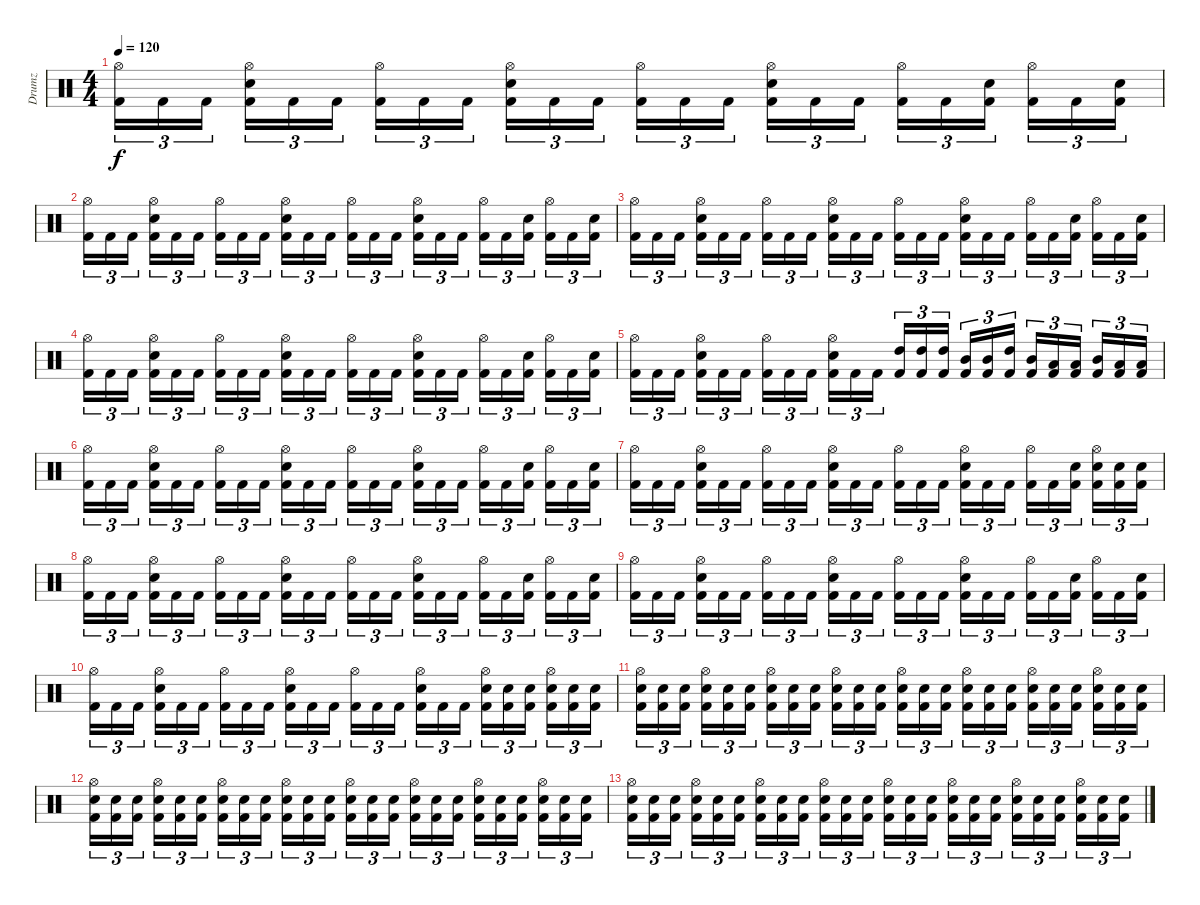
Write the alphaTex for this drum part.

\track ("Drumz" "Drumz") {instrument percussion}
\staff {score}
\articulation defaults
\ts (4 4)
\tempo 120
\clef neutral
\ks c
("Hi-Hat (open)" "Kick (hit) 2").16{tu (3 2) dy f} "Kick (hit) 2".16{tu (3 2)} "Kick (hit) 2".16{tu (3 2)} ("Hi-Hat (open)" "Snare (hit) 2" "Kick (hit) 2").16{tu (3 2)} "Kick (hit) 2".16{tu (3 2)} "Kick (hit) 2".16{tu (3 2)} ("Hi-Hat (open)" "Kick (hit) 2").16{tu (3 2)} "Kick (hit) 2".16{tu (3 2)} "Kick (hit) 2".16{tu (3 2)} ("Hi-Hat (open)" "Snare (hit) 2" "Kick (hit) 2").16{tu (3 2)} "Kick (hit) 2".16{tu (3 2)} "Kick (hit) 2".16{tu (3 2)} ("Hi-Hat (open)" "Kick (hit) 2").16{tu (3 2)} "Kick (hit) 2".16{tu (3 2)} "Kick (hit) 2".16{tu (3 2)} ("Hi-Hat (open)" "Snare (hit) 2" "Kick (hit) 2").16{tu (3 2)} "Kick (hit) 2".16{tu (3 2)} "Kick (hit) 2".16{tu (3 2)} ("Hi-Hat (open)" "Kick (hit) 2").16{tu (3 2)} "Kick (hit) 2".16{tu (3 2)} ("Snare (hit) 2" "Kick (hit) 2").16{tu (3 2)} ("Hi-Hat (open)" "Kick (hit) 2").16{tu (3 2)} "Kick (hit) 2".16{tu (3 2)} ("Snare (hit) 2" "Kick (hit) 2").16{tu (3 2)} |
("Hi-Hat (open)" "Kick (hit) 2").16{tu (3 2)} "Kick (hit) 2".16{tu (3 2)} "Kick (hit) 2".16{tu (3 2)} ("Hi-Hat (open)" "Snare (hit) 2" "Kick (hit) 2").16{tu (3 2)} "Kick (hit) 2".16{tu (3 2)} "Kick (hit) 2".16{tu (3 2)} ("Hi-Hat (open)" "Kick (hit) 2").16{tu (3 2)} "Kick (hit) 2".16{tu (3 2)} "Kick (hit) 2".16{tu (3 2)} ("Hi-Hat (open)" "Snare (hit) 2" "Kick (hit) 2").16{tu (3 2)} "Kick (hit) 2".16{tu (3 2)} "Kick (hit) 2".16{tu (3 2)} ("Hi-Hat (open)" "Kick (hit) 2").16{tu (3 2)} "Kick (hit) 2".16{tu (3 2)} "Kick (hit) 2".16{tu (3 2)} ("Hi-Hat (open)" "Snare (hit) 2" "Kick (hit) 2").16{tu (3 2)} "Kick (hit) 2".16{tu (3 2)} "Kick (hit) 2".16{tu (3 2)} ("Hi-Hat (open)" "Kick (hit) 2").16{tu (3 2)} "Kick (hit) 2".16{tu (3 2)} ("Snare (hit) 2" "Kick (hit) 2").16{tu (3 2)} ("Hi-Hat (open)" "Kick (hit) 2").16{tu (3 2)} "Kick (hit) 2".16{tu (3 2)} ("Snare (hit) 2" "Kick (hit) 2").16{tu (3 2)} |
("Hi-Hat (open)" "Kick (hit) 2").16{tu (3 2)} "Kick (hit) 2".16{tu (3 2)} "Kick (hit) 2".16{tu (3 2)} ("Hi-Hat (open)" "Snare (hit) 2" "Kick (hit) 2").16{tu (3 2)} "Kick (hit) 2".16{tu (3 2)} "Kick (hit) 2".16{tu (3 2)} ("Hi-Hat (open)" "Kick (hit) 2").16{tu (3 2)} "Kick (hit) 2".16{tu (3 2)} "Kick (hit) 2".16{tu (3 2)} ("Hi-Hat (open)" "Snare (hit) 2" "Kick (hit) 2").16{tu (3 2)} "Kick (hit) 2".16{tu (3 2)} "Kick (hit) 2".16{tu (3 2)} ("Hi-Hat (open)" "Kick (hit) 2").16{tu (3 2)} "Kick (hit) 2".16{tu (3 2)} "Kick (hit) 2".16{tu (3 2)} ("Hi-Hat (open)" "Snare (hit) 2" "Kick (hit) 2").16{tu (3 2)} "Kick (hit) 2".16{tu (3 2)} "Kick (hit) 2".16{tu (3 2)} ("Hi-Hat (open)" "Kick (hit) 2").16{tu (3 2)} "Kick (hit) 2".16{tu (3 2)} ("Snare (hit) 2" "Kick (hit) 2").16{tu (3 2)} ("Hi-Hat (open)" "Kick (hit) 2").16{tu (3 2)} "Kick (hit) 2".16{tu (3 2)} ("Snare (hit) 2" "Kick (hit) 2").16{tu (3 2)} |
("Hi-Hat (open)" "Kick (hit) 2").16{tu (3 2)} "Kick (hit) 2".16{tu (3 2)} "Kick (hit) 2".16{tu (3 2)} ("Hi-Hat (open)" "Snare (hit) 2" "Kick (hit) 2").16{tu (3 2)} "Kick (hit) 2".16{tu (3 2)} "Kick (hit) 2".16{tu (3 2)} ("Hi-Hat (open)" "Kick (hit) 2").16{tu (3 2)} "Kick (hit) 2".16{tu (3 2)} "Kick (hit) 2".16{tu (3 2)} ("Hi-Hat (open)" "Snare (hit) 2" "Kick (hit) 2").16{tu (3 2)} "Kick (hit) 2".16{tu (3 2)} "Kick (hit) 2".16{tu (3 2)} ("Hi-Hat (open)" "Kick (hit) 2").16{tu (3 2)} "Kick (hit) 2".16{tu (3 2)} "Kick (hit) 2".16{tu (3 2)} ("Hi-Hat (open)" "Snare (hit) 2" "Kick (hit) 2").16{tu (3 2)} "Kick (hit) 2".16{tu (3 2)} "Kick (hit) 2".16{tu (3 2)} ("Hi-Hat (open)" "Kick (hit) 2").16{tu (3 2)} "Kick (hit) 2".16{tu (3 2)} ("Snare (hit) 2" "Kick (hit) 2").16{tu (3 2)} ("Hi-Hat (open)" "Kick (hit) 2").16{tu (3 2)} "Kick (hit) 2".16{tu (3 2)} ("Snare (hit) 2" "Kick (hit) 2").16{tu (3 2)} |
("Hi-Hat (open)" "Kick (hit) 2").16{tu (3 2)} "Kick (hit) 2".16{tu (3 2)} "Kick (hit) 2".16{tu (3 2)} ("Hi-Hat (open)" "Snare (hit) 2" "Kick (hit) 2").16{tu (3 2)} "Kick (hit) 2".16{tu (3 2)} "Kick (hit) 2".16{tu (3 2)} ("Hi-Hat (open)" "Kick (hit) 2").16{tu (3 2)} "Kick (hit) 2".16{tu (3 2)} "Kick (hit) 2".16{tu (3 2)} ("Hi-Hat (open)" "Snare (hit) 2" "Kick (hit) 2").16{tu (3 2)} "Kick (hit) 2".16{tu (3 2)} "Kick (hit) 2".16{tu (3 2)} ("High Tom (hit)" "Kick (hit) 2").16{tu (3 2)} ("High Tom (hit)" "Kick (hit) 2").16{tu (3 2)} ("High Tom (hit)" "Kick (hit) 2").16{tu (3 2)} ("Mid Tom (hit)" "Kick (hit) 2").16{tu (3 2)} ("Mid Tom (hit)" "Kick (hit) 2").16{tu (3 2)} ("High Tom (hit)" "Kick (hit) 2").16{tu (3 2)} ("Mid Tom (hit)" "Kick (hit) 2").16{tu (3 2)} ("Low Tom (hit)" "Kick (hit) 2").16{tu (3 2)} ("Low Tom (hit)" "Kick (hit) 2").16{tu (3 2)} ("Mid Tom (hit)" "Kick (hit) 2").16{tu (3 2)} ("Low Tom (hit)" "Kick (hit) 2").16{tu (3 2)} ("Low Tom (hit)" "Kick (hit) 2").16{tu (3 2)} |
("Hi-Hat (open)" "Kick (hit) 2").16{tu (3 2)} "Kick (hit) 2".16{tu (3 2)} "Kick (hit) 2".16{tu (3 2)} ("Hi-Hat (open)" "Snare (hit) 2" "Kick (hit) 2").16{tu (3 2)} "Kick (hit) 2".16{tu (3 2)} "Kick (hit) 2".16{tu (3 2)} ("Hi-Hat (open)" "Kick (hit) 2").16{tu (3 2)} "Kick (hit) 2".16{tu (3 2)} "Kick (hit) 2".16{tu (3 2)} ("Hi-Hat (open)" "Snare (hit) 2" "Kick (hit) 2").16{tu (3 2)} "Kick (hit) 2".16{tu (3 2)} "Kick (hit) 2".16{tu (3 2)} ("Hi-Hat (open)" "Kick (hit) 2").16{tu (3 2)} "Kick (hit) 2".16{tu (3 2)} "Kick (hit) 2".16{tu (3 2)} ("Hi-Hat (open)" "Snare (hit) 2" "Kick (hit) 2").16{tu (3 2)} "Kick (hit) 2".16{tu (3 2)} "Kick (hit) 2".16{tu (3 2)} ("Hi-Hat (open)" "Kick (hit) 2").16{tu (3 2)} "Kick (hit) 2".16{tu (3 2)} ("Snare (hit) 2" "Kick (hit) 2").16{tu (3 2)} ("Hi-Hat (open)" "Kick (hit) 2").16{tu (3 2)} "Kick (hit) 2".16{tu (3 2)} ("Snare (hit) 2" "Kick (hit) 2").16{tu (3 2)} |
("Hi-Hat (open)" "Kick (hit) 2").16{tu (3 2)} "Kick (hit) 2".16{tu (3 2)} "Kick (hit) 2".16{tu (3 2)} ("Hi-Hat (open)" "Snare (hit) 2" "Kick (hit) 2").16{tu (3 2)} "Kick (hit) 2".16{tu (3 2)} "Kick (hit) 2".16{tu (3 2)} ("Hi-Hat (open)" "Kick (hit) 2").16{tu (3 2)} "Kick (hit) 2".16{tu (3 2)} "Kick (hit) 2".16{tu (3 2)} ("Hi-Hat (open)" "Snare (hit) 2" "Kick (hit) 2").16{tu (3 2)} "Kick (hit) 2".16{tu (3 2)} "Kick (hit) 2".16{tu (3 2)} ("Hi-Hat (open)" "Kick (hit) 2").16{tu (3 2)} "Kick (hit) 2".16{tu (3 2)} "Kick (hit) 2".16{tu (3 2)} ("Hi-Hat (open)" "Snare (hit) 2" "Kick (hit) 2").16{tu (3 2)} "Kick (hit) 2".16{tu (3 2)} "Kick (hit) 2".16{tu (3 2)} ("Hi-Hat (open)" "Kick (hit) 2").16{tu (3 2)} "Kick (hit) 2".16{tu (3 2)} ("Snare (hit) 2" "Kick (hit) 2").16{tu (3 2)} ("Hi-Hat (open)" "Snare (hit) 2" "Kick (hit) 2").16{tu (3 2)} ("Snare (hit) 2" "Kick (hit) 2").16{tu (3 2)} ("Snare (hit) 2" "Kick (hit) 2").16{tu (3 2)} |
("Hi-Hat (open)" "Kick (hit) 2").16{tu (3 2)} "Kick (hit) 2".16{tu (3 2)} "Kick (hit) 2".16{tu (3 2)} ("Hi-Hat (open)" "Snare (hit) 2" "Kick (hit) 2").16{tu (3 2)} "Kick (hit) 2".16{tu (3 2)} "Kick (hit) 2".16{tu (3 2)} ("Hi-Hat (open)" "Kick (hit) 2").16{tu (3 2)} "Kick (hit) 2".16{tu (3 2)} "Kick (hit) 2".16{tu (3 2)} ("Hi-Hat (open)" "Snare (hit) 2" "Kick (hit) 2").16{tu (3 2)} "Kick (hit) 2".16{tu (3 2)} "Kick (hit) 2".16{tu (3 2)} ("Hi-Hat (open)" "Kick (hit) 2").16{tu (3 2)} "Kick (hit) 2".16{tu (3 2)} "Kick (hit) 2".16{tu (3 2)} ("Hi-Hat (open)" "Snare (hit) 2" "Kick (hit) 2").16{tu (3 2)} "Kick (hit) 2".16{tu (3 2)} "Kick (hit) 2".16{tu (3 2)} ("Hi-Hat (open)" "Kick (hit) 2").16{tu (3 2)} "Kick (hit) 2".16{tu (3 2)} ("Snare (hit) 2" "Kick (hit) 2").16{tu (3 2)} ("Hi-Hat (open)" "Kick (hit) 2").16{tu (3 2)} "Kick (hit) 2".16{tu (3 2)} ("Snare (hit) 2" "Kick (hit) 2").16{tu (3 2)} |
("Hi-Hat (open)" "Kick (hit) 2").16{tu (3 2)} "Kick (hit) 2".16{tu (3 2)} "Kick (hit) 2".16{tu (3 2)} ("Hi-Hat (open)" "Snare (hit) 2" "Kick (hit) 2").16{tu (3 2)} "Kick (hit) 2".16{tu (3 2)} "Kick (hit) 2".16{tu (3 2)} ("Hi-Hat (open)" "Kick (hit) 2").16{tu (3 2)} "Kick (hit) 2".16{tu (3 2)} "Kick (hit) 2".16{tu (3 2)} ("Hi-Hat (open)" "Snare (hit) 2" "Kick (hit) 2").16{tu (3 2)} "Kick (hit) 2".16{tu (3 2)} "Kick (hit) 2".16{tu (3 2)} ("Hi-Hat (open)" "Kick (hit) 2").16{tu (3 2)} "Kick (hit) 2".16{tu (3 2)} "Kick (hit) 2".16{tu (3 2)} ("Hi-Hat (open)" "Snare (hit) 2" "Kick (hit) 2").16{tu (3 2)} "Kick (hit) 2".16{tu (3 2)} "Kick (hit) 2".16{tu (3 2)} ("Hi-Hat (open)" "Kick (hit) 2").16{tu (3 2)} "Kick (hit) 2".16{tu (3 2)} ("Snare (hit) 2" "Kick (hit) 2").16{tu (3 2)} ("Hi-Hat (open)" "Kick (hit) 2").16{tu (3 2)} "Kick (hit) 2".16{tu (3 2)} ("Snare (hit) 2" "Kick (hit) 2").16{tu (3 2)} |
("Hi-Hat (open)" "Kick (hit) 2").16{tu (3 2)} "Kick (hit) 2".16{tu (3 2)} "Kick (hit) 2".16{tu (3 2)} ("Hi-Hat (open)" "Snare (hit) 2" "Kick (hit) 2").16{tu (3 2)} "Kick (hit) 2".16{tu (3 2)} "Kick (hit) 2".16{tu (3 2)} ("Hi-Hat (open)" "Kick (hit) 2").16{tu (3 2)} "Kick (hit) 2".16{tu (3 2)} "Kick (hit) 2".16{tu (3 2)} ("Hi-Hat (open)" "Snare (hit) 2" "Kick (hit) 2").16{tu (3 2)} "Kick (hit) 2".16{tu (3 2)} "Kick (hit) 2".16{tu (3 2)} ("Hi-Hat (open)" "Kick (hit) 2").16{tu (3 2)} "Kick (hit) 2".16{tu (3 2)} "Kick (hit) 2".16{tu (3 2)} ("Hi-Hat (open)" "Snare (hit) 2" "Kick (hit) 2").16{tu (3 2)} "Kick (hit) 2".16{tu (3 2)} "Kick (hit) 2".16{tu (3 2)} ("Hi-Hat (open)" "Snare (hit) 2" "Kick (hit) 2").16{tu (3 2)} ("Snare (hit) 2" "Kick (hit) 2").16{tu (3 2)} ("Snare (hit) 2" "Kick (hit) 2").16{tu (3 2)} ("Hi-Hat (open)" "Snare (hit) 2" "Kick (hit) 2").16{tu (3 2)} ("Snare (hit) 2" "Kick (hit) 2").16{tu (3 2)} ("Snare (hit) 2" "Kick (hit) 2").16{tu (3 2)} |
("Hi-Hat (open)" "Snare (hit) 2" "Kick (hit) 2").16{tu (3 2)} ("Snare (hit) 2" "Kick (hit) 2").16{tu (3 2)} ("Snare (hit) 2" "Kick (hit) 2").16{tu (3 2)} ("Hi-Hat (open)" "Snare (hit) 2" "Kick (hit) 2").16{tu (3 2)} ("Snare (hit) 2" "Kick (hit) 2").16{tu (3 2)} ("Snare (hit) 2" "Kick (hit) 2").16{tu (3 2)} ("Hi-Hat (open)" "Snare (hit) 2" "Kick (hit) 2").16{tu (3 2)} ("Snare (hit) 2" "Kick (hit) 2").16{tu (3 2)} ("Snare (hit) 2" "Kick (hit) 2").16{tu (3 2)} ("Hi-Hat (open)" "Snare (hit) 2" "Kick (hit) 2").16{tu (3 2)} ("Snare (hit) 2" "Kick (hit) 2").16{tu (3 2)} ("Snare (hit) 2" "Kick (hit) 2").16{tu (3 2)} ("Hi-Hat (open)" "Snare (hit) 2" "Kick (hit) 2").16{tu (3 2)} ("Snare (hit) 2" "Kick (hit) 2").16{tu (3 2)} ("Snare (hit) 2" "Kick (hit) 2").16{tu (3 2)} ("Hi-Hat (open)" "Snare (hit) 2" "Kick (hit) 2").16{tu (3 2)} ("Snare (hit) 2" "Kick (hit) 2").16{tu (3 2)} ("Snare (hit) 2" "Kick (hit) 2").16{tu (3 2)} ("Hi-Hat (open)" "Snare (hit) 2" "Kick (hit) 2").16{tu (3 2)} ("Snare (hit) 2" "Kick (hit) 2").16{tu (3 2)} ("Snare (hit) 2" "Kick (hit) 2").16{tu (3 2)} ("Hi-Hat (open)" "Snare (hit) 2" "Kick (hit) 2").16{tu (3 2)} ("Snare (hit) 2" "Kick (hit) 2").16{tu (3 2)} ("Snare (hit) 2" "Kick (hit) 2").16{tu (3 2)} |
("Hi-Hat (open)" "Snare (hit) 2" "Kick (hit) 2").16{tu (3 2)} ("Snare (hit) 2" "Kick (hit) 2").16{tu (3 2)} ("Snare (hit) 2" "Kick (hit) 2").16{tu (3 2)} ("Hi-Hat (open)" "Snare (hit) 2" "Kick (hit) 2").16{tu (3 2)} ("Snare (hit) 2" "Kick (hit) 2").16{tu (3 2)} ("Snare (hit) 2" "Kick (hit) 2").16{tu (3 2)} ("Hi-Hat (open)" "Snare (hit) 2" "Kick (hit) 2").16{tu (3 2)} ("Snare (hit) 2" "Kick (hit) 2").16{tu (3 2)} ("Snare (hit) 2" "Kick (hit) 2").16{tu (3 2)} ("Hi-Hat (open)" "Snare (hit) 2" "Kick (hit) 2").16{tu (3 2)} ("Snare (hit) 2" "Kick (hit) 2").16{tu (3 2)} ("Snare (hit) 2" "Kick (hit) 2").16{tu (3 2)} ("Hi-Hat (open)" "Snare (hit) 2" "Kick (hit) 2").16{tu (3 2)} ("Snare (hit) 2" "Kick (hit) 2").16{tu (3 2)} ("Snare (hit) 2" "Kick (hit) 2").16{tu (3 2)} ("Hi-Hat (open)" "Snare (hit) 2" "Kick (hit) 2").16{tu (3 2)} ("Snare (hit) 2" "Kick (hit) 2").16{tu (3 2)} ("Snare (hit) 2" "Kick (hit) 2").16{tu (3 2)} ("Hi-Hat (open)" "Snare (hit) 2" "Kick (hit) 2").16{tu (3 2)} ("Snare (hit) 2" "Kick (hit) 2").16{tu (3 2)} ("Snare (hit) 2" "Kick (hit) 2").16{tu (3 2)} ("Hi-Hat (open)" "Snare (hit) 2" "Kick (hit) 2").16{tu (3 2)} ("Snare (hit) 2" "Kick (hit) 2").16{tu (3 2)} ("Snare (hit) 2" "Kick (hit) 2").16{tu (3 2)} |
("Hi-Hat (open)" "Snare (hit) 2" "Kick (hit) 2").16{tu (3 2)} ("Snare (hit) 2" "Kick (hit) 2").16{tu (3 2)} ("Snare (hit) 2" "Kick (hit) 2").16{tu (3 2)} ("Hi-Hat (open)" "Snare (hit) 2" "Kick (hit) 2").16{tu (3 2)} ("Snare (hit) 2" "Kick (hit) 2").16{tu (3 2)} ("Snare (hit) 2" "Kick (hit) 2").16{tu (3 2)} ("Hi-Hat (open)" "Snare (hit) 2" "Kick (hit) 2").16{tu (3 2)} ("Snare (hit) 2" "Kick (hit) 2").16{tu (3 2)} ("Snare (hit) 2" "Kick (hit) 2").16{tu (3 2)} ("Hi-Hat (open)" "Snare (hit) 2" "Kick (hit) 2").16{tu (3 2)} ("Snare (hit) 2" "Kick (hit) 2").16{tu (3 2)} ("Snare (hit) 2" "Kick (hit) 2").16{tu (3 2)} ("Hi-Hat (open)" "Snare (hit) 2" "Kick (hit) 2").16{tu (3 2)} ("Snare (hit) 2" "Kick (hit) 2").16{tu (3 2)} ("Snare (hit) 2" "Kick (hit) 2").16{tu (3 2)} ("Hi-Hat (open)" "Snare (hit) 2" "Kick (hit) 2").16{tu (3 2)} ("Snare (hit) 2" "Kick (hit) 2").16{tu (3 2)} ("Snare (hit) 2" "Kick (hit) 2").16{tu (3 2)} ("Hi-Hat (open)" "Snare (hit) 2" "Kick (hit) 2").16{tu (3 2)} ("Snare (hit) 2" "Kick (hit) 2").16{tu (3 2)} ("Snare (hit) 2" "Kick (hit) 2").16{tu (3 2)} ("Hi-Hat (open)" "Snare (hit) 2" "Kick (hit) 2").16{tu (3 2)} ("Snare (hit) 2" "Kick (hit) 2").16{tu (3 2)} ("Snare (hit) 2" "Kick (hit) 2").16{tu (3 2)}
